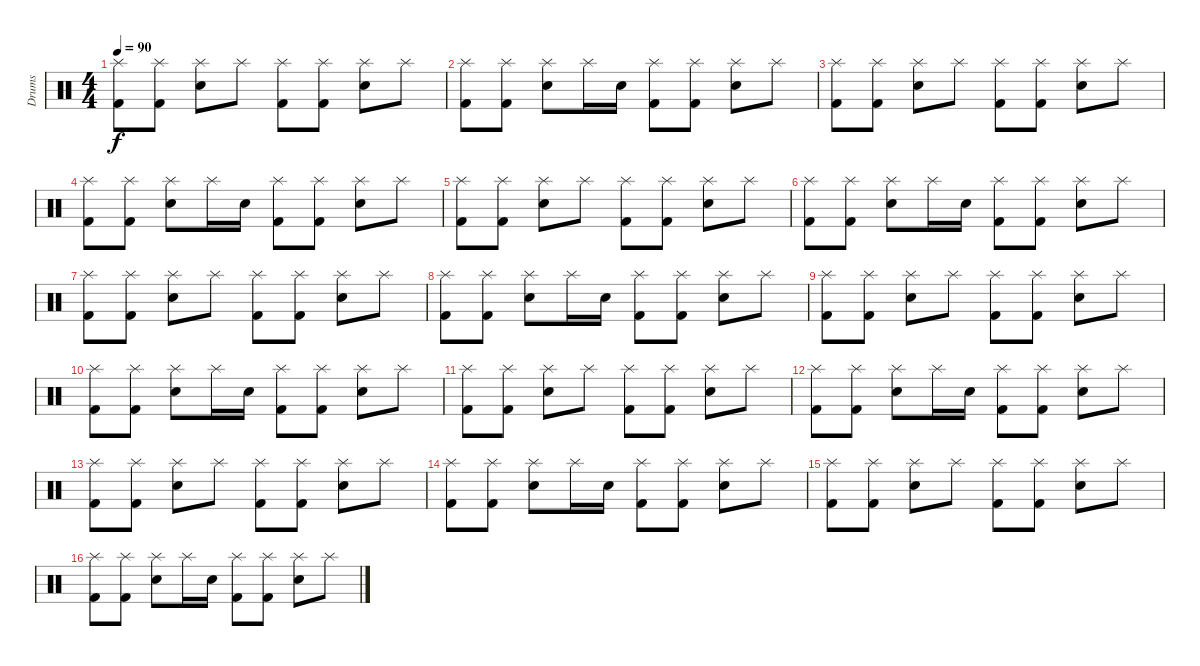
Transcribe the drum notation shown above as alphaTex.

\track ("Drums" "Drums") {instrument percussion}
\staff {score}
\articulation defaults
\ts (4 4)
\tempo 90
\clef neutral
\ks c
("Splash (hit)" "Kick (hit) 2").8{dy f} ("Splash (hit)" "Kick (hit) 2").8 ("Splash (hit)" "Snare (hit) 2").8 "Splash (hit)".8 ("Splash (hit)" "Kick (hit) 2").8 ("Splash (hit)" "Kick (hit) 2").8 ("Splash (hit)" "Snare (hit) 2").8 "Splash (hit)".8 |
("Splash (hit)" "Kick (hit) 2").8 ("Splash (hit)" "Kick (hit) 2").8 ("Splash (hit)" "Snare (hit) 2").8 "Splash (hit)".16 "Snare (hit) 2".16 ("Splash (hit)" "Kick (hit) 2").8 ("Splash (hit)" "Kick (hit) 2").8 ("Splash (hit)" "Snare (hit) 2").8 "Splash (hit)".8 |
("Splash (hit)" "Kick (hit) 2").8 ("Splash (hit)" "Kick (hit) 2").8 ("Splash (hit)" "Snare (hit) 2").8 "Splash (hit)".8 ("Splash (hit)" "Kick (hit) 2").8 ("Splash (hit)" "Kick (hit) 2").8 ("Splash (hit)" "Snare (hit) 2").8 "Splash (hit)".8 |
("Splash (hit)" "Kick (hit) 2").8 ("Splash (hit)" "Kick (hit) 2").8 ("Splash (hit)" "Snare (hit) 2").8 "Splash (hit)".16 "Snare (hit) 2".16 ("Splash (hit)" "Kick (hit) 2").8 ("Splash (hit)" "Kick (hit) 2").8 ("Splash (hit)" "Snare (hit) 2").8 "Splash (hit)".8 |
("Splash (hit)" "Kick (hit) 2").8 ("Splash (hit)" "Kick (hit) 2").8 ("Splash (hit)" "Snare (hit) 2").8 "Splash (hit)".8 ("Splash (hit)" "Kick (hit) 2").8 ("Splash (hit)" "Kick (hit) 2").8 ("Splash (hit)" "Snare (hit) 2").8 "Splash (hit)".8 |
("Splash (hit)" "Kick (hit) 2").8 ("Splash (hit)" "Kick (hit) 2").8 ("Splash (hit)" "Snare (hit) 2").8 "Splash (hit)".16 "Snare (hit) 2".16 ("Splash (hit)" "Kick (hit) 2").8 ("Splash (hit)" "Kick (hit) 2").8 ("Splash (hit)" "Snare (hit) 2").8 "Splash (hit)".8 |
("Splash (hit)" "Kick (hit) 2").8 ("Splash (hit)" "Kick (hit) 2").8 ("Splash (hit)" "Snare (hit) 2").8 "Splash (hit)".8 ("Splash (hit)" "Kick (hit) 2").8 ("Splash (hit)" "Kick (hit) 2").8 ("Splash (hit)" "Snare (hit) 2").8 "Splash (hit)".8 |
("Splash (hit)" "Kick (hit) 2").8 ("Splash (hit)" "Kick (hit) 2").8 ("Splash (hit)" "Snare (hit) 2").8 "Splash (hit)".16 "Snare (hit) 2".16 ("Splash (hit)" "Kick (hit) 2").8 ("Splash (hit)" "Kick (hit) 2").8 ("Splash (hit)" "Snare (hit) 2").8 "Splash (hit)".8 |
("Splash (hit)" "Kick (hit) 2").8 ("Splash (hit)" "Kick (hit) 2").8 ("Splash (hit)" "Snare (hit) 2").8 "Splash (hit)".8 ("Splash (hit)" "Kick (hit) 2").8 ("Splash (hit)" "Kick (hit) 2").8 ("Splash (hit)" "Snare (hit) 2").8 "Splash (hit)".8 |
("Splash (hit)" "Kick (hit) 2").8 ("Splash (hit)" "Kick (hit) 2").8 ("Splash (hit)" "Snare (hit) 2").8 "Splash (hit)".16 "Snare (hit) 2".16 ("Splash (hit)" "Kick (hit) 2").8 ("Splash (hit)" "Kick (hit) 2").8 ("Splash (hit)" "Snare (hit) 2").8 "Splash (hit)".8 |
("Splash (hit)" "Kick (hit) 2").8 ("Splash (hit)" "Kick (hit) 2").8 ("Splash (hit)" "Snare (hit) 2").8 "Splash (hit)".8 ("Splash (hit)" "Kick (hit) 2").8 ("Splash (hit)" "Kick (hit) 2").8 ("Splash (hit)" "Snare (hit) 2").8 "Splash (hit)".8 |
("Splash (hit)" "Kick (hit) 2").8 ("Splash (hit)" "Kick (hit) 2").8 ("Splash (hit)" "Snare (hit) 2").8 "Splash (hit)".16 "Snare (hit) 2".16 ("Splash (hit)" "Kick (hit) 2").8 ("Splash (hit)" "Kick (hit) 2").8 ("Splash (hit)" "Snare (hit) 2").8 "Splash (hit)".8 |
("Splash (hit)" "Kick (hit) 2").8 ("Splash (hit)" "Kick (hit) 2").8 ("Splash (hit)" "Snare (hit) 2").8 "Splash (hit)".8 ("Splash (hit)" "Kick (hit) 2").8 ("Splash (hit)" "Kick (hit) 2").8 ("Splash (hit)" "Snare (hit) 2").8 "Splash (hit)".8 |
("Splash (hit)" "Kick (hit) 2").8 ("Splash (hit)" "Kick (hit) 2").8 ("Splash (hit)" "Snare (hit) 2").8 "Splash (hit)".16 "Snare (hit) 2".16 ("Splash (hit)" "Kick (hit) 2").8 ("Splash (hit)" "Kick (hit) 2").8 ("Splash (hit)" "Snare (hit) 2").8 "Splash (hit)".8 |
("Splash (hit)" "Kick (hit) 2").8 ("Splash (hit)" "Kick (hit) 2").8 ("Splash (hit)" "Snare (hit) 2").8 "Splash (hit)".8 ("Splash (hit)" "Kick (hit) 2").8 ("Splash (hit)" "Kick (hit) 2").8 ("Splash (hit)" "Snare (hit) 2").8 "Splash (hit)".8 |
("Splash (hit)" "Kick (hit) 2").8 ("Splash (hit)" "Kick (hit) 2").8 ("Splash (hit)" "Snare (hit) 2").8 "Splash (hit)".16 "Snare (hit) 2".16 ("Splash (hit)" "Kick (hit) 2").8 ("Splash (hit)" "Kick (hit) 2").8 ("Splash (hit)" "Snare (hit) 2").8 "Splash (hit)".8
